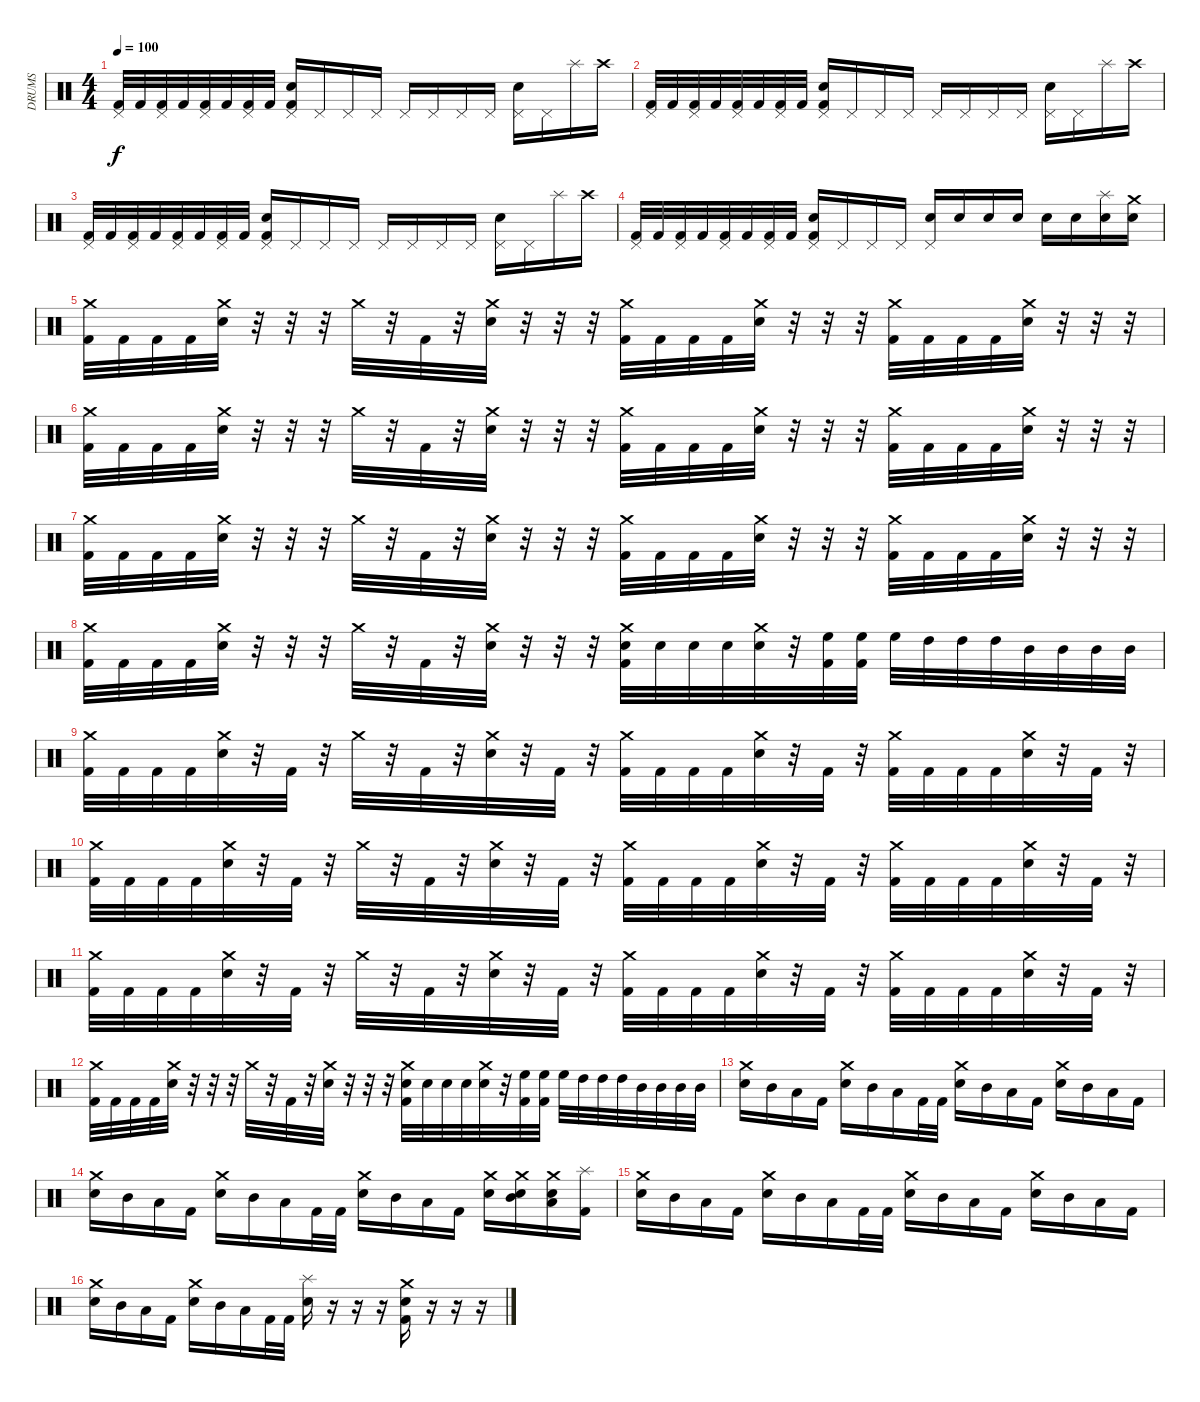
\track ("DRUMS" "DRUMS") {instrument percussion}
\staff {score}
\articulation defaults
\ts (4 4)
\tempo 100
\clef neutral
\ks c
("Pedal Hi-Hat (hit)" "Kick (hit) 2").32{dy f} "Kick (hit) 2".32 ("Pedal Hi-Hat (hit)" "Kick (hit) 2").32 "Kick (hit) 2".32 ("Pedal Hi-Hat (hit)" "Kick (hit) 2").32 "Kick (hit) 2".32 ("Pedal Hi-Hat (hit)" "Kick (hit) 2").32 "Kick (hit) 2".32 ("Pedal Hi-Hat (hit)" "Electric Snare (hit)" "Kick (hit) 2").16 "Pedal Hi-Hat (hit)".16 "Pedal Hi-Hat (hit)".16 "Pedal Hi-Hat (hit)".16 "Pedal Hi-Hat (hit)".16 "Pedal Hi-Hat (hit)".16 "Pedal Hi-Hat (hit)".16 "Pedal Hi-Hat (hit)".16 ("Pedal Hi-Hat (hit)" "Electric Snare (hit)").16 "Pedal Hi-Hat (hit)".16 "Splash (hit)".16 "Crash high (hit)".16 |
("Pedal Hi-Hat (hit)" "Kick (hit) 2").32 "Kick (hit) 2".32 ("Pedal Hi-Hat (hit)" "Kick (hit) 2").32 "Kick (hit) 2".32 ("Pedal Hi-Hat (hit)" "Kick (hit) 2").32 "Kick (hit) 2".32 ("Pedal Hi-Hat (hit)" "Kick (hit) 2").32 "Kick (hit) 2".32 ("Pedal Hi-Hat (hit)" "Electric Snare (hit)" "Kick (hit) 2").16 "Pedal Hi-Hat (hit)".16 "Pedal Hi-Hat (hit)".16 "Pedal Hi-Hat (hit)".16 "Pedal Hi-Hat (hit)".16 "Pedal Hi-Hat (hit)".16 "Pedal Hi-Hat (hit)".16 "Pedal Hi-Hat (hit)".16 ("Pedal Hi-Hat (hit)" "Electric Snare (hit)").16 "Pedal Hi-Hat (hit)".16 "Splash (hit)".16 "Crash high (hit)".16 |
("Pedal Hi-Hat (hit)" "Kick (hit) 2").32 "Kick (hit) 2".32 ("Pedal Hi-Hat (hit)" "Kick (hit) 2").32 "Kick (hit) 2".32 ("Pedal Hi-Hat (hit)" "Kick (hit) 2").32 "Kick (hit) 2".32 ("Pedal Hi-Hat (hit)" "Kick (hit) 2").32 "Kick (hit) 2".32 ("Pedal Hi-Hat (hit)" "Electric Snare (hit)" "Kick (hit) 2").16 "Pedal Hi-Hat (hit)".16 "Pedal Hi-Hat (hit)".16 "Pedal Hi-Hat (hit)".16 "Pedal Hi-Hat (hit)".16 "Pedal Hi-Hat (hit)".16 "Pedal Hi-Hat (hit)".16 "Pedal Hi-Hat (hit)".16 ("Pedal Hi-Hat (hit)" "Electric Snare (hit)").16 "Pedal Hi-Hat (hit)".16 "Splash (hit)".16 "Crash high (hit)".16 |
("Pedal Hi-Hat (hit)" "Kick (hit) 2").32 "Kick (hit) 2".32 ("Pedal Hi-Hat (hit)" "Kick (hit) 2").32 "Kick (hit) 2".32 ("Pedal Hi-Hat (hit)" "Kick (hit) 2").32 "Kick (hit) 2".32 ("Pedal Hi-Hat (hit)" "Kick (hit) 2").32 "Kick (hit) 2".32 ("Pedal Hi-Hat (hit)" "Electric Snare (hit)" "Kick (hit) 2").16 "Pedal Hi-Hat (hit)".16 "Pedal Hi-Hat (hit)".16 "Pedal Hi-Hat (hit)".16 ("Pedal Hi-Hat (hit)" "Electric Snare (hit)").16 "Electric Snare (hit)".16 "Electric Snare (hit)".16 "Electric Snare (hit)".16 "Electric Snare (hit)".16 "Electric Snare (hit)".16 ("Splash (hit)" "Electric Snare (hit)").16 ("Crash medium (hit)" "Electric Snare (hit)").16 |
("Crash medium (hit)" "Kick (hit) 2").32 "Kick (hit) 2".32 "Kick (hit) 2".32 "Kick (hit) 2".32 ("Crash medium (hit)" "Electric Snare (hit)").32 r.32 r.32 r.32 "Crash medium (hit)".32 r.32 "Kick (hit) 2".32 r.32 ("Crash medium (hit)" "Electric Snare (hit)").32 r.32 r.32 r.32 ("Crash medium (hit)" "Kick (hit) 2").32 "Kick (hit) 2".32 "Kick (hit) 2".32 "Kick (hit) 2".32 ("Crash medium (hit)" "Electric Snare (hit)").32 r.32 r.32 r.32 ("Crash medium (hit)" "Kick (hit) 2").32 "Kick (hit) 2".32 "Kick (hit) 2".32 "Kick (hit) 2".32 ("Crash medium (hit)" "Electric Snare (hit)").32 r.32 r.32 r.32 |
("Crash medium (hit)" "Kick (hit) 2").32 "Kick (hit) 2".32 "Kick (hit) 2".32 "Kick (hit) 2".32 ("Crash medium (hit)" "Electric Snare (hit)").32 r.32 r.32 r.32 "Crash medium (hit)".32 r.32 "Kick (hit) 2".32 r.32 ("Crash medium (hit)" "Electric Snare (hit)").32 r.32 r.32 r.32 ("Crash medium (hit)" "Kick (hit) 2").32 "Kick (hit) 2".32 "Kick (hit) 2".32 "Kick (hit) 2".32 ("Crash medium (hit)" "Electric Snare (hit)").32 r.32 r.32 r.32 ("Crash medium (hit)" "Kick (hit) 2").32 "Kick (hit) 2".32 "Kick (hit) 2".32 "Kick (hit) 2".32 ("Crash medium (hit)" "Electric Snare (hit)").32 r.32 r.32 r.32 |
("Crash medium (hit)" "Kick (hit) 2").32 "Kick (hit) 2".32 "Kick (hit) 2".32 "Kick (hit) 2".32 ("Crash medium (hit)" "Electric Snare (hit)").32 r.32 r.32 r.32 "Crash medium (hit)".32 r.32 "Kick (hit) 2".32 r.32 ("Crash medium (hit)" "Electric Snare (hit)").32 r.32 r.32 r.32 ("Crash medium (hit)" "Kick (hit) 2").32 "Kick (hit) 2".32 "Kick (hit) 2".32 "Kick (hit) 2".32 ("Crash medium (hit)" "Electric Snare (hit)").32 r.32 r.32 r.32 ("Crash medium (hit)" "Kick (hit) 2").32 "Kick (hit) 2".32 "Kick (hit) 2".32 "Kick (hit) 2".32 ("Crash medium (hit)" "Electric Snare (hit)").32 r.32 r.32 r.32 |
("Crash medium (hit)" "Kick (hit) 2").32 "Kick (hit) 2".32 "Kick (hit) 2".32 "Kick (hit) 2".32 ("Crash medium (hit)" "Electric Snare (hit)").32 r.32 r.32 r.32 "Crash medium (hit)".32 r.32 "Kick (hit) 2".32 r.32 ("Crash medium (hit)" "Electric Snare (hit)").32 r.32 r.32 r.32 ("Crash medium (hit)" "Electric Snare (hit)" "Kick (hit) 2").32 "Electric Snare (hit)".32 "Electric Snare (hit)".32 "Electric Snare (hit)".32 ("Crash medium (hit)" "Electric Snare (hit)").32 r.32 ("High Floor Tom (hit)" "Kick (hit) 2").32 ("High Floor Tom (hit)" "Kick (hit) 2").32 "High Floor Tom (hit)".32 "High Tom (hit)".32 "High Tom (hit)".32 "High Tom (hit)".32 "Mid Tom (hit)".32 "Mid Tom (hit)".32 "Mid Tom (hit)".32 "Mid Tom (hit)".32 |
("Crash medium (hit)" "Kick (hit) 2").32 "Kick (hit) 2".32 "Kick (hit) 2".32 "Kick (hit) 2".32 ("Crash medium (hit)" "Electric Snare (hit)").32 r.32 "Kick (hit) 2".32 r.32 "Crash medium (hit)".32 r.32 "Kick (hit) 2".32 r.32 ("Crash medium (hit)" "Electric Snare (hit)").32 r.32 "Kick (hit) 2".32 r.32 ("Crash medium (hit)" "Kick (hit) 2").32 "Kick (hit) 2".32 "Kick (hit) 2".32 "Kick (hit) 2".32 ("Crash medium (hit)" "Electric Snare (hit)").32 r.32 "Kick (hit) 2".32 r.32 ("Crash medium (hit)" "Kick (hit) 2").32 "Kick (hit) 2".32 "Kick (hit) 2".32 "Kick (hit) 2".32 ("Crash medium (hit)" "Electric Snare (hit)").32 r.32 "Kick (hit) 2".32 r.32 |
("Crash medium (hit)" "Kick (hit) 2").32 "Kick (hit) 2".32 "Kick (hit) 2".32 "Kick (hit) 2".32 ("Crash medium (hit)" "Electric Snare (hit)").32 r.32 "Kick (hit) 2".32 r.32 "Crash medium (hit)".32 r.32 "Kick (hit) 2".32 r.32 ("Crash medium (hit)" "Electric Snare (hit)").32 r.32 "Kick (hit) 2".32 r.32 ("Crash medium (hit)" "Kick (hit) 2").32 "Kick (hit) 2".32 "Kick (hit) 2".32 "Kick (hit) 2".32 ("Crash medium (hit)" "Electric Snare (hit)").32 r.32 "Kick (hit) 2".32 r.32 ("Crash medium (hit)" "Kick (hit) 2").32 "Kick (hit) 2".32 "Kick (hit) 2".32 "Kick (hit) 2".32 ("Crash medium (hit)" "Electric Snare (hit)").32 r.32 "Kick (hit) 2".32 r.32 |
("Crash medium (hit)" "Kick (hit) 2").32 "Kick (hit) 2".32 "Kick (hit) 2".32 "Kick (hit) 2".32 ("Crash medium (hit)" "Electric Snare (hit)").32 r.32 "Kick (hit) 2".32 r.32 "Crash medium (hit)".32 r.32 "Kick (hit) 2".32 r.32 ("Crash medium (hit)" "Electric Snare (hit)").32 r.32 "Kick (hit) 2".32 r.32 ("Crash medium (hit)" "Kick (hit) 2").32 "Kick (hit) 2".32 "Kick (hit) 2".32 "Kick (hit) 2".32 ("Crash medium (hit)" "Electric Snare (hit)").32 r.32 "Kick (hit) 2".32 r.32 ("Crash medium (hit)" "Kick (hit) 2").32 "Kick (hit) 2".32 "Kick (hit) 2".32 "Kick (hit) 2".32 ("Crash medium (hit)" "Electric Snare (hit)").32 r.32 "Kick (hit) 2".32 r.32 |
("Crash medium (hit)" "Kick (hit) 2").32 "Kick (hit) 2".32 "Kick (hit) 2".32 "Kick (hit) 2".32 ("Crash medium (hit)" "Electric Snare (hit)").32 r.32 r.32 r.32 "Crash medium (hit)".32 r.32 "Kick (hit) 2".32 r.32 ("Crash medium (hit)" "Electric Snare (hit)").32 r.32 r.32 r.32 ("Crash medium (hit)" "Electric Snare (hit)" "Kick (hit) 2").32 "Electric Snare (hit)".32 "Electric Snare (hit)".32 "Electric Snare (hit)".32 ("Crash medium (hit)" "Electric Snare (hit)").32 r.32 ("High Floor Tom (hit)" "Kick (hit) 2").32 ("High Floor Tom (hit)" "Kick (hit) 2").32 "High Floor Tom (hit)".32 "High Tom (hit)".32 "High Tom (hit)".32 "High Tom (hit)".32 "Mid Tom (hit)".32 "Mid Tom (hit)".32 "Mid Tom (hit)".32 "Mid Tom (hit)".32 |
("Crash medium (hit)" "Electric Snare (hit)").16 "Mid Tom (hit)".16 "Low Tom (hit)".16 "Kick (hit) 2".16 ("Crash medium (hit)" "Electric Snare (hit)").16 "Mid Tom (hit)".16 "Low Tom (hit)".16 "Kick (hit) 2".32 "Kick (hit) 2".32 ("Crash medium (hit)" "Electric Snare (hit)").16 "Mid Tom (hit)".16 "Low Tom (hit)".16 "Kick (hit) 2".16 ("Crash medium (hit)" "Electric Snare (hit)").16 "Mid Tom (hit)".16 "Low Tom (hit)".16 "Kick (hit) 2".16 |
("Crash medium (hit)" "Electric Snare (hit)").16 "Mid Tom (hit)".16 "Low Tom (hit)".16 "Kick (hit) 2".16 ("Crash medium (hit)" "Electric Snare (hit)").16 "Mid Tom (hit)".16 "Low Tom (hit)".16 "Kick (hit) 2".32 "Kick (hit) 2".32 ("Crash medium (hit)" "Electric Snare (hit)").16 "Mid Tom (hit)".16 "Low Tom (hit)".16 "Kick (hit) 2".16 ("Crash medium (hit)" "Electric Snare (hit)").16 ("Crash medium (hit)" "Electric Snare (hit)" "Mid Tom (hit)").16 ("Crash medium (hit)" "Electric Snare (hit)" "Low Tom (hit)").16 ("Splash (hit)" "Kick (hit) 2").16 |
("Crash medium (hit)" "Electric Snare (hit)").16 "Mid Tom (hit)".16 "Low Tom (hit)".16 "Kick (hit) 2".16 ("Crash medium (hit)" "Electric Snare (hit)").16 "Mid Tom (hit)".16 "Low Tom (hit)".16 "Kick (hit) 2".32 "Kick (hit) 2".32 ("Crash medium (hit)" "Electric Snare (hit)").16 "Mid Tom (hit)".16 "Low Tom (hit)".16 "Kick (hit) 2".16 ("Crash medium (hit)" "Electric Snare (hit)").16 "Mid Tom (hit)".16 "Low Tom (hit)".16 "Kick (hit) 2".16 |
("Crash medium (hit)" "Electric Snare (hit)").16 "Mid Tom (hit)".16 "Low Tom (hit)".16 "Kick (hit) 2".16 ("Crash medium (hit)" "Electric Snare (hit)").16 "Mid Tom (hit)".16 "Low Tom (hit)".16 "Kick (hit) 2".32 "Kick (hit) 2".32 ("Splash (hit)" "Electric Snare (hit)").16 r.16 r.16 r.16 ("Crash medium (hit)" "Electric Snare (hit)" "Kick (hit) 2").16 r.16 r.16 r.16
